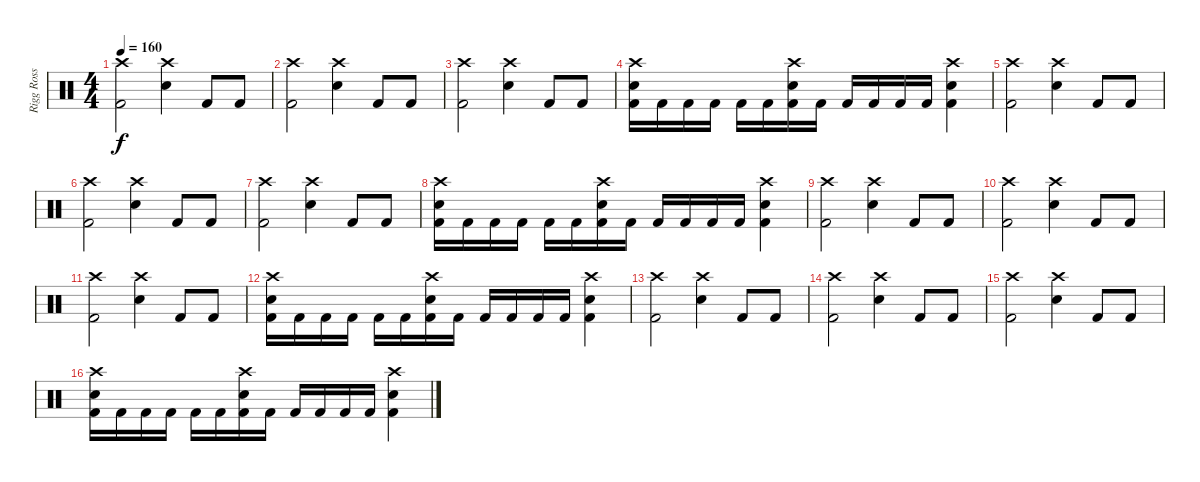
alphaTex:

\track ("Rigg Ross" "Rigg Ross") {instrument percussion}
\staff {score}
\articulation defaults
\ts (4 4)
\tempo 160
\clef neutral
\ks c
("Crash high (hit)" "Kick (hit) 2").2{dy f} ("Crash high (hit)" "Electric Snare (hit)").4 "Kick (hit) 2".8 "Kick (hit) 2".8 |
("Crash high (hit)" "Kick (hit) 2").2 ("Crash high (hit)" "Electric Snare (hit)").4 "Kick (hit) 2".8 "Kick (hit) 2".8 |
("Crash high (hit)" "Kick (hit) 2").2 ("Crash high (hit)" "Electric Snare (hit)").4 "Kick (hit) 2".8 "Kick (hit) 2".8 |
("Crash high (hit)" "Electric Snare (hit)" "Kick (hit) 2").16 "Kick (hit) 2".16 "Kick (hit) 2".16 "Kick (hit) 2".16 "Kick (hit) 2".16 "Kick (hit) 2".16 ("Crash high (hit)" "Electric Snare (hit)" "Kick (hit) 2").16 "Kick (hit) 2".16 "Kick (hit) 2".16 "Kick (hit) 2".16 "Kick (hit) 2".16 "Kick (hit) 2".16 ("Crash high (hit)" "Electric Snare (hit)" "Kick (hit) 2").4 |
("Crash high (hit)" "Kick (hit) 2").2 ("Crash high (hit)" "Electric Snare (hit)").4 "Kick (hit) 2".8 "Kick (hit) 2".8 |
("Crash high (hit)" "Kick (hit) 2").2 ("Crash high (hit)" "Electric Snare (hit)").4 "Kick (hit) 2".8 "Kick (hit) 2".8 |
("Crash high (hit)" "Kick (hit) 2").2 ("Crash high (hit)" "Electric Snare (hit)").4 "Kick (hit) 2".8 "Kick (hit) 2".8 |
("Crash high (hit)" "Electric Snare (hit)" "Kick (hit) 2").16 "Kick (hit) 2".16 "Kick (hit) 2".16 "Kick (hit) 2".16 "Kick (hit) 2".16 "Kick (hit) 2".16 ("Crash high (hit)" "Electric Snare (hit)" "Kick (hit) 2").16 "Kick (hit) 2".16 "Kick (hit) 2".16 "Kick (hit) 2".16 "Kick (hit) 2".16 "Kick (hit) 2".16 ("Crash high (hit)" "Electric Snare (hit)" "Kick (hit) 2").4 |
("Crash high (hit)" "Kick (hit) 2").2 ("Crash high (hit)" "Electric Snare (hit)").4 "Kick (hit) 2".8 "Kick (hit) 2".8 |
("Crash high (hit)" "Kick (hit) 2").2 ("Crash high (hit)" "Electric Snare (hit)").4 "Kick (hit) 2".8 "Kick (hit) 2".8 |
("Crash high (hit)" "Kick (hit) 2").2 ("Crash high (hit)" "Electric Snare (hit)").4 "Kick (hit) 2".8 "Kick (hit) 2".8 |
("Crash high (hit)" "Electric Snare (hit)" "Kick (hit) 2").16 "Kick (hit) 2".16 "Kick (hit) 2".16 "Kick (hit) 2".16 "Kick (hit) 2".16 "Kick (hit) 2".16 ("Crash high (hit)" "Electric Snare (hit)" "Kick (hit) 2").16 "Kick (hit) 2".16 "Kick (hit) 2".16 "Kick (hit) 2".16 "Kick (hit) 2".16 "Kick (hit) 2".16 ("Crash high (hit)" "Electric Snare (hit)" "Kick (hit) 2").4 |
("Crash high (hit)" "Kick (hit) 2").2 ("Crash high (hit)" "Electric Snare (hit)").4 "Kick (hit) 2".8 "Kick (hit) 2".8 |
("Crash high (hit)" "Kick (hit) 2").2 ("Crash high (hit)" "Electric Snare (hit)").4 "Kick (hit) 2".8 "Kick (hit) 2".8 |
("Crash high (hit)" "Kick (hit) 2").2 ("Crash high (hit)" "Electric Snare (hit)").4 "Kick (hit) 2".8 "Kick (hit) 2".8 |
("Crash high (hit)" "Electric Snare (hit)" "Kick (hit) 2").16 "Kick (hit) 2".16 "Kick (hit) 2".16 "Kick (hit) 2".16 "Kick (hit) 2".16 "Kick (hit) 2".16 ("Crash high (hit)" "Electric Snare (hit)" "Kick (hit) 2").16 "Kick (hit) 2".16 "Kick (hit) 2".16 "Kick (hit) 2".16 "Kick (hit) 2".16 "Kick (hit) 2".16 ("Crash high (hit)" "Electric Snare (hit)" "Kick (hit) 2").4
